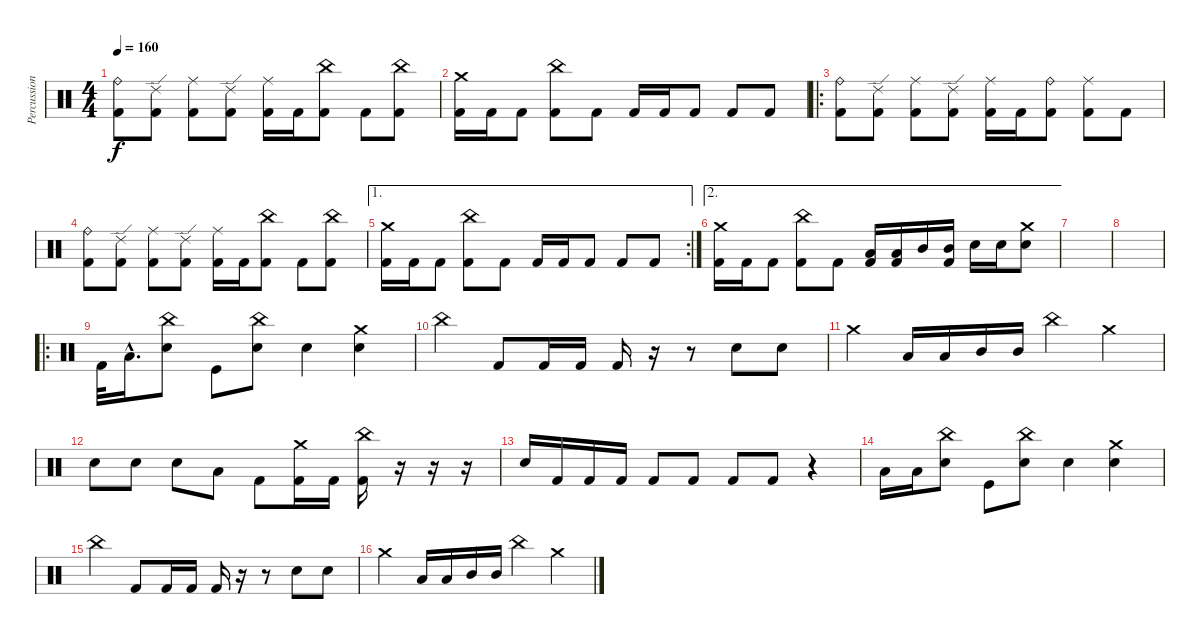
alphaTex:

\track ("Percussion" "Percussion") {instrument percussion}
\staff {score}
\articulation defaults
\ts (4 4)
\tempo 160
\clef neutral
\ks c
("Ride (bell)" "Kick (hit) 2").8{dy f} ("Ride (edge) 2" "Kick (hit) 2").8 ("Ride (middle)" "Kick (hit) 2").8 ("Ride (edge) 2" "Kick (hit) 2").8 ("Ride (middle)" "Kick (hit) 2").16 "Kick (hit) 2".16 ("China (hit)" "Kick (hit) 2").8 "Kick (hit) 2".8 ("China (hit)" "Kick (hit) 2").8 |
("Crash medium (hit)" "Kick (hit) 2").16 "Kick (hit) 2".16 "Kick (hit) 2".8 ("China (hit)" "Kick (hit) 2").8 "Kick (hit) 2".8 "Kick (hit) 2".16 "Kick (hit) 2".16 "Kick (hit) 2".8 "Kick (hit) 2".8 "Kick (hit) 2".8 |
\ro
("Ride (bell)" "Kick (hit) 2").8 ("Ride (edge) 2" "Kick (hit) 2").8 ("Ride (middle)" "Kick (hit) 2").8 ("Ride (edge) 2" "Kick (hit) 2").8 ("Ride (middle)" "Kick (hit) 2").16 "Kick (hit) 2".16 ("Ride (bell)" "Kick (hit) 2").8 ("Ride (middle)" "Kick (hit) 2").8 "Kick (hit) 2".8 |
("Ride (bell)" "Kick (hit) 2").8 ("Ride (edge) 2" "Kick (hit) 2").8 ("Ride (middle)" "Kick (hit) 2").8 ("Ride (edge) 2" "Kick (hit) 2").8 ("Ride (middle)" "Kick (hit) 2").16 "Kick (hit) 2".16 ("China (hit)" "Kick (hit) 2").8 "Kick (hit) 2".8 ("China (hit)" "Kick (hit) 2").8 |
\ae 1
\rc 2
("Crash medium (hit)" "Kick (hit) 2").16 "Kick (hit) 2".16 "Kick (hit) 2".8 ("China (hit)" "Kick (hit) 2").8 "Kick (hit) 2".8 "Kick (hit) 2".16 "Kick (hit) 2".16 "Kick (hit) 2".8 "Kick (hit) 2".8 "Kick (hit) 2".8 |
\ae 2
("Crash medium (hit)" "Kick (hit) 2").16 "Kick (hit) 2".16 "Kick (hit) 2".8 ("China (hit)" "Kick (hit) 2").8 "Kick (hit) 2".8 ("Low Tom (hit)" "Kick (hit) 2").16 ("Low Tom (hit)" "Kick (hit) 2").16 "Mid Tom (hit)".16 ("Mid Tom (hit)" "Kick (hit) 2").16 "Electric Snare (hit)".16 "Electric Snare (hit)".16 ("Crash medium (hit)" "Electric Snare (hit)").8 |
|
|
\ro "Kick (hit) 2".32 "Low Tom (hit)"{hac}.16{d}
("China (hit)" "Electric Snare (hit)").8 "Kick (hit)".8 ("China (hit)" "Electric Snare (hit)").8 "Electric Snare (hit)".4 ("Crash medium (hit)" "Electric Snare (hit)").4 |
"China (hit)".4 "Kick (hit) 2".8 "Kick (hit) 2".16 "Kick (hit) 2".16 "Kick (hit) 2".16 r.16 r.8 "Electric Snare (hit)".8 "Electric Snare (hit)".8 |
"Crash medium (hit)".4 "Low Tom (hit)".16 "Low Tom (hit)".16 "Mid Tom (hit)".16 "Mid Tom (hit)".16 "China (hit)".4 "Crash medium (hit)".4 |
"Electric Snare (hit)".8 "Electric Snare (hit)".8 "Electric Snare (hit)".8 "Low Floor Tom (hit)".8 "Kick (hit) 2".8 ("Crash medium (hit)" "Kick (hit) 2").16 "Kick (hit) 2".16 ("China (hit)" "Kick (hit) 2").16 r.16 r.16 r.16 |
"Electric Snare (hit)".16 "Kick (hit) 2".16 "Kick (hit) 2".16 "Kick (hit) 2".16 "Kick (hit) 2".8 "Kick (hit) 2".8 "Kick (hit) 2".8 "Kick (hit) 2".8 r.4 |
"Low Tom (hit)".16 "Low Tom (hit)".16 ("China (hit)" "Electric Snare (hit)").8 "Kick (hit)".8 ("China (hit)" "Electric Snare (hit)").8 "Electric Snare (hit)".4 ("Crash medium (hit)" "Electric Snare (hit)").4 |
"China (hit)".4 "Kick (hit) 2".8 "Kick (hit) 2".16 "Kick (hit) 2".16 "Kick (hit) 2".16 r.16 r.8 "Electric Snare (hit)".8 "Electric Snare (hit)".8 |
"Crash medium (hit)".4 "Low Tom (hit)".16 "Low Tom (hit)".16 "Mid Tom (hit)".16 "Mid Tom (hit)".16 "China (hit)".4 "Crash medium (hit)".4
